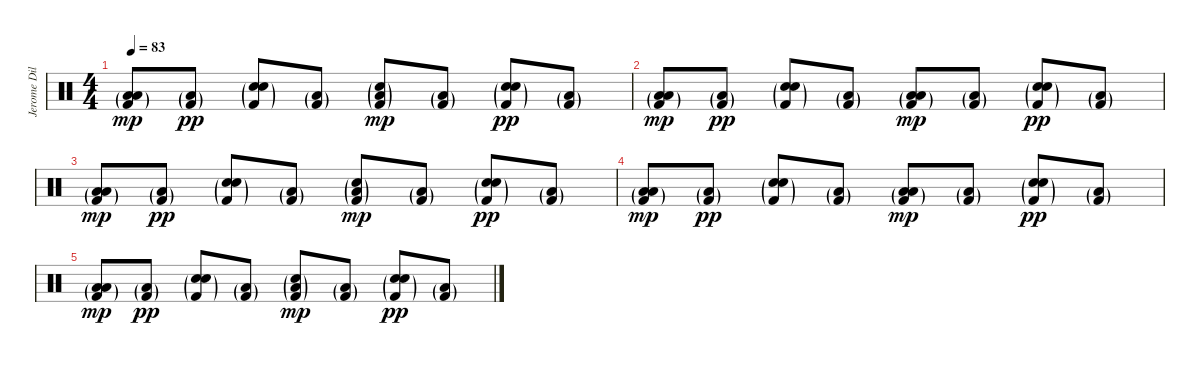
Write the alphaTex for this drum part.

\track ("Jerome Dillon" "Jerome Dil") {instrument percussion}
\staff {score}
\articulation defaults
\ts (4 4)
\tempo 83
\clef neutral
\ks c
("Low Floor Tom (hit)"{g} "Low Tom (hit)"{g} "Kick (hit) 2"{g}).8{dy mp} ("Low Tom (hit)"{g} "Kick (hit) 2"{g}).8{dy pp} ("Hand Clap (hit)"{g} "Electric Snare (hit)"{g} "Kick (hit) 2"{g}).8 ("Low Tom (hit)"{g} "Kick (hit) 2"{g}).8 ("Low Floor Tom (hit)"{g} "Snare (hit)"{g} "Kick (hit) 2"{g}).8{dy mp} ("Low Tom (hit)"{g} "Kick (hit) 2"{g}).8 ("Hand Clap (hit)"{g} "Electric Snare (hit)"{g} "Kick (hit) 2"{g}).8{dy pp} ("Low Tom (hit)"{g} "Kick (hit) 2"{g}).8 |
("Low Floor Tom (hit)"{g} "Low Tom (hit)"{g} "Kick (hit) 2"{g}).8{dy mp} ("Low Tom (hit)"{g} "Kick (hit) 2"{g}).8{dy pp} ("Hand Clap (hit)"{g} "Electric Snare (hit)"{g} "Kick (hit) 2"{g}).8 ("Low Tom (hit)"{g} "Kick (hit) 2"{g}).8 ("Low Floor Tom (hit)"{g} "Low Tom (hit)"{g} "Kick (hit) 2"{g}).8{dy mp} ("Low Tom (hit)"{g} "Kick (hit) 2"{g}).8 ("Hand Clap (hit)"{g} "Electric Snare (hit)"{g} "Kick (hit) 2"{g}).8{dy pp} ("Low Tom (hit)"{g} "Kick (hit) 2"{g}).8 |
("Low Floor Tom (hit)"{g} "Low Tom (hit)"{g} "Kick (hit) 2"{g}).8{dy mp} ("Low Tom (hit)"{g} "Kick (hit) 2"{g}).8{dy pp} ("Hand Clap (hit)"{g} "Electric Snare (hit)"{g} "Kick (hit) 2"{g}).8 ("Low Tom (hit)"{g} "Kick (hit) 2"{g}).8 ("Low Floor Tom (hit)"{g} "Snare (hit)"{g} "Kick (hit) 2"{g}).8{dy mp} ("Low Tom (hit)"{g} "Kick (hit) 2"{g}).8 ("Hand Clap (hit)"{g} "Electric Snare (hit)"{g} "Kick (hit) 2"{g}).8{dy pp} ("Low Tom (hit)"{g} "Kick (hit) 2"{g}).8 |
("Low Floor Tom (hit)"{g} "Low Tom (hit)"{g} "Kick (hit) 2"{g}).8{dy mp} ("Low Tom (hit)"{g} "Kick (hit) 2"{g}).8{dy pp} ("Hand Clap (hit)"{g} "Electric Snare (hit)"{g} "Kick (hit) 2"{g}).8 ("Low Tom (hit)"{g} "Kick (hit) 2"{g}).8 ("Low Floor Tom (hit)"{g} "Low Tom (hit)"{g} "Kick (hit) 2"{g}).8{dy mp} ("Low Tom (hit)"{g} "Kick (hit) 2"{g}).8 ("Hand Clap (hit)"{g} "Electric Snare (hit)"{g} "Kick (hit) 2"{g}).8{dy pp} ("Low Tom (hit)"{g} "Kick (hit) 2"{g}).8 |
("Low Floor Tom (hit)"{g} "Low Tom (hit)"{g} "Kick (hit) 2"{g}).8{dy mp} ("Low Tom (hit)"{g} "Kick (hit) 2"{g}).8{dy pp} ("Hand Clap (hit)"{g} "Electric Snare (hit)"{g} "Kick (hit) 2"{g}).8 ("Low Tom (hit)"{g} "Kick (hit) 2"{g}).8 ("Low Floor Tom (hit)"{g} "Snare (hit)"{g} "Kick (hit) 2"{g}).8{dy mp} ("Low Tom (hit)"{g} "Kick (hit) 2"{g}).8 ("Hand Clap (hit)"{g} "Electric Snare (hit)"{g} "Kick (hit) 2"{g}).8{dy pp} ("Low Tom (hit)"{g} "Kick (hit) 2"{g}).8
